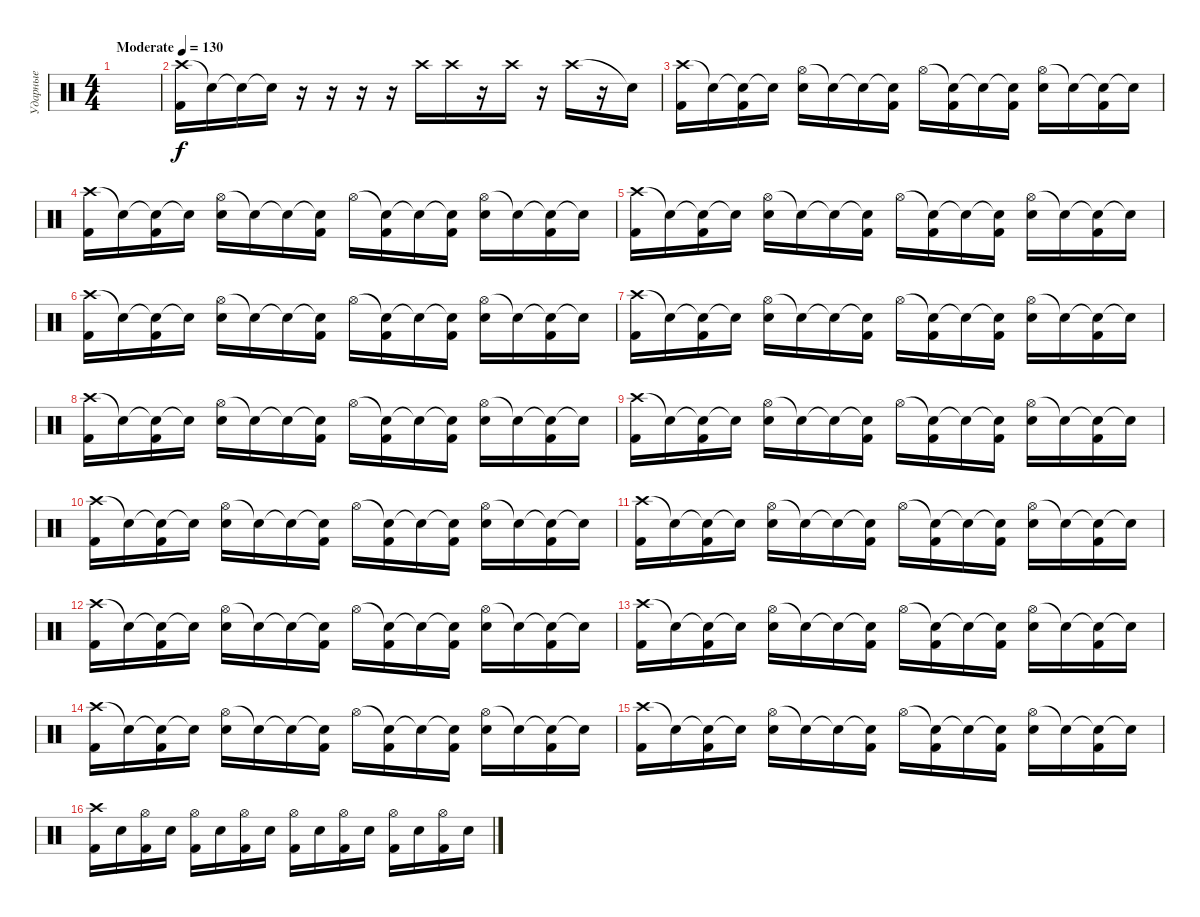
\track ("Ударные" "Ударные") {instrument percussion}
\staff {score}
\articulation defaults
\ts (4 4)
\tempo (130 "Moderate")
\clef neutral
\ks c
|
("Crash high (hit)" "Kick (hit) 2").16 "Snare (hit)"{t}.16 "Snare (hit)"{t}.16 "Snare (hit)"{t}.16 r.16 r.16 r.16 r.16 "Crash high (hit)".16 "Crash high (hit)".16 r.16 "Crash high (hit)".16 r.16 "Crash high (hit)".16 r.16 "Snare (hit)"{t}.16 |
("Crash high (hit)" "Kick (hit) 2").16 "Snare (hit)"{t}.16 ("Snare (hit)"{t} "Kick (hit) 2").16 "Snare (hit)"{t}.16 ("Hi-Hat (open)" "Snare (hit) 2").16 "Snare (hit)"{t}.16 "Snare (hit)"{t}.16 ("Snare (hit)"{t} "Kick (hit) 2").16 "Hi-Hat (open)".16 ("Snare (hit)"{t} "Kick (hit) 2").16 "Snare (hit)"{t}.16 ("Snare (hit)"{t} "Kick (hit) 2").16 ("Hi-Hat (open)" "Snare (hit) 2").16 "Snare (hit)"{t}.16 ("Snare (hit)"{t} "Kick (hit) 2").16 "Snare (hit)"{t}.16 |
("Crash high (hit)" "Kick (hit) 2").16 "Snare (hit)"{t}.16 ("Snare (hit)"{t} "Kick (hit) 2").16 "Snare (hit)"{t}.16 ("Hi-Hat (open)" "Snare (hit) 2").16 "Snare (hit)"{t}.16 "Snare (hit)"{t}.16 ("Snare (hit)"{t} "Kick (hit) 2").16 "Hi-Hat (open)".16 ("Snare (hit)"{t} "Kick (hit) 2").16 "Snare (hit)"{t}.16 ("Snare (hit)"{t} "Kick (hit) 2").16 ("Hi-Hat (open)" "Snare (hit) 2").16 "Snare (hit)"{t}.16 ("Snare (hit)"{t} "Kick (hit) 2").16 "Snare (hit)"{t}.16 |
("Crash high (hit)" "Kick (hit) 2").16 "Snare (hit)"{t}.16 ("Snare (hit)"{t} "Kick (hit) 2").16 "Snare (hit)"{t}.16 ("Hi-Hat (open)" "Snare (hit) 2").16 "Snare (hit)"{t}.16 "Snare (hit)"{t}.16 ("Snare (hit)"{t} "Kick (hit) 2").16 "Hi-Hat (open)".16 ("Snare (hit)"{t} "Kick (hit) 2").16 "Snare (hit)"{t}.16 ("Snare (hit)"{t} "Kick (hit) 2").16 ("Hi-Hat (open)" "Snare (hit) 2").16 "Snare (hit)"{t}.16 ("Snare (hit)"{t} "Kick (hit) 2").16 "Snare (hit)"{t}.16 |
("Crash high (hit)" "Kick (hit) 2").16 "Snare (hit)"{t}.16 ("Snare (hit)"{t} "Kick (hit) 2").16 "Snare (hit)"{t}.16 ("Hi-Hat (open)" "Snare (hit) 2").16 "Snare (hit)"{t}.16 "Snare (hit)"{t}.16 ("Snare (hit)"{t} "Kick (hit) 2").16 "Hi-Hat (open)".16 ("Snare (hit)"{t} "Kick (hit) 2").16 "Snare (hit)"{t}.16 ("Snare (hit)"{t} "Kick (hit) 2").16 ("Hi-Hat (open)" "Snare (hit) 2").16 "Snare (hit)"{t}.16 ("Snare (hit)"{t} "Kick (hit) 2").16 "Snare (hit)"{t}.16 |
("Crash high (hit)" "Kick (hit) 2").16 "Snare (hit)"{t}.16 ("Snare (hit)"{t} "Kick (hit) 2").16 "Snare (hit)"{t}.16 ("Hi-Hat (open)" "Snare (hit) 2").16 "Snare (hit)"{t}.16 "Snare (hit)"{t}.16 ("Snare (hit)"{t} "Kick (hit) 2").16 "Hi-Hat (open)".16 ("Snare (hit)"{t} "Kick (hit) 2").16 "Snare (hit)"{t}.16 ("Snare (hit)"{t} "Kick (hit) 2").16 ("Hi-Hat (open)" "Snare (hit) 2").16 "Snare (hit)"{t}.16 ("Snare (hit)"{t} "Kick (hit) 2").16 "Snare (hit)"{t}.16 |
("Crash high (hit)" "Kick (hit) 2").16 "Snare (hit)"{t}.16 ("Snare (hit)"{t} "Kick (hit) 2").16 "Snare (hit)"{t}.16 ("Hi-Hat (open)" "Snare (hit) 2").16 "Snare (hit)"{t}.16 "Snare (hit)"{t}.16 ("Snare (hit)"{t} "Kick (hit) 2").16 "Hi-Hat (open)".16 ("Snare (hit)"{t} "Kick (hit) 2").16 "Snare (hit)"{t}.16 ("Snare (hit)"{t} "Kick (hit) 2").16 ("Hi-Hat (open)" "Snare (hit) 2").16 "Snare (hit)"{t}.16 ("Snare (hit)"{t} "Kick (hit) 2").16 "Snare (hit)"{t}.16 |
("Crash high (hit)" "Kick (hit) 2").16 "Snare (hit)"{t}.16 ("Snare (hit)"{t} "Kick (hit) 2").16 "Snare (hit)"{t}.16 ("Hi-Hat (open)" "Snare (hit) 2").16 "Snare (hit)"{t}.16 "Snare (hit)"{t}.16 ("Snare (hit)"{t} "Kick (hit) 2").16 "Hi-Hat (open)".16 ("Snare (hit)"{t} "Kick (hit) 2").16 "Snare (hit)"{t}.16 ("Snare (hit)"{t} "Kick (hit) 2").16 ("Hi-Hat (open)" "Snare (hit) 2").16 "Snare (hit)"{t}.16 ("Snare (hit)"{t} "Kick (hit) 2").16 "Snare (hit)"{t}.16 |
("Crash high (hit)" "Kick (hit) 2").16 "Snare (hit)"{t}.16 ("Snare (hit)"{t} "Kick (hit) 2").16 "Snare (hit)"{t}.16 ("Hi-Hat (open)" "Snare (hit) 2").16 "Snare (hit)"{t}.16 "Snare (hit)"{t}.16 ("Snare (hit)"{t} "Kick (hit) 2").16 "Hi-Hat (open)".16 ("Snare (hit)"{t} "Kick (hit) 2").16 "Snare (hit)"{t}.16 ("Snare (hit)"{t} "Kick (hit) 2").16 ("Hi-Hat (open)" "Snare (hit) 2").16 "Snare (hit)"{t}.16 ("Snare (hit)"{t} "Kick (hit) 2").16 "Snare (hit)"{t}.16 |
("Crash high (hit)" "Kick (hit) 2").16 "Snare (hit)"{t}.16 ("Snare (hit)"{t} "Kick (hit) 2").16 "Snare (hit)"{t}.16 ("Hi-Hat (open)" "Snare (hit) 2").16 "Snare (hit)"{t}.16 "Snare (hit)"{t}.16 ("Snare (hit)"{t} "Kick (hit) 2").16 "Hi-Hat (open)".16 ("Snare (hit)"{t} "Kick (hit) 2").16 "Snare (hit)"{t}.16 ("Snare (hit)"{t} "Kick (hit) 2").16 ("Hi-Hat (open)" "Snare (hit) 2").16 "Snare (hit)"{t}.16 ("Snare (hit)"{t} "Kick (hit) 2").16 "Snare (hit)"{t}.16 |
("Crash high (hit)" "Kick (hit) 2").16 "Snare (hit)"{t}.16 ("Snare (hit)"{t} "Kick (hit) 2").16 "Snare (hit)"{t}.16 ("Hi-Hat (open)" "Snare (hit) 2").16 "Snare (hit)"{t}.16 "Snare (hit)"{t}.16 ("Snare (hit)"{t} "Kick (hit) 2").16 "Hi-Hat (open)".16 ("Snare (hit)"{t} "Kick (hit) 2").16 "Snare (hit)"{t}.16 ("Snare (hit)"{t} "Kick (hit) 2").16 ("Hi-Hat (open)" "Snare (hit) 2").16 "Snare (hit)"{t}.16 ("Snare (hit)"{t} "Kick (hit) 2").16 "Snare (hit)"{t}.16 |
("Crash high (hit)" "Kick (hit) 2").16 "Snare (hit)"{t}.16 ("Snare (hit)"{t} "Kick (hit) 2").16 "Snare (hit)"{t}.16 ("Hi-Hat (open)" "Snare (hit) 2").16 "Snare (hit)"{t}.16 "Snare (hit)"{t}.16 ("Snare (hit)"{t} "Kick (hit) 2").16 "Hi-Hat (open)".16 ("Snare (hit)"{t} "Kick (hit) 2").16 "Snare (hit)"{t}.16 ("Snare (hit)"{t} "Kick (hit) 2").16 ("Hi-Hat (open)" "Snare (hit) 2").16 "Snare (hit)"{t}.16 ("Snare (hit)"{t} "Kick (hit) 2").16 "Snare (hit)"{t}.16 |
("Crash high (hit)" "Kick (hit) 2").16 "Snare (hit)"{t}.16 ("Snare (hit)"{t} "Kick (hit) 2").16 "Snare (hit)"{t}.16 ("Hi-Hat (open)" "Snare (hit) 2").16 "Snare (hit)"{t}.16 "Snare (hit)"{t}.16 ("Snare (hit)"{t} "Kick (hit) 2").16 "Hi-Hat (open)".16 ("Snare (hit)"{t} "Kick (hit) 2").16 "Snare (hit)"{t}.16 ("Snare (hit)"{t} "Kick (hit) 2").16 ("Hi-Hat (open)" "Snare (hit) 2").16 "Snare (hit)"{t}.16 ("Snare (hit)"{t} "Kick (hit) 2").16 "Snare (hit)"{t}.16 |
("Crash high (hit)" "Kick (hit) 2").16 "Snare (hit)"{t}.16 ("Snare (hit)"{t} "Kick (hit) 2").16 "Snare (hit)"{t}.16 ("Hi-Hat (open)" "Snare (hit) 2").16 "Snare (hit)"{t}.16 "Snare (hit)"{t}.16 ("Snare (hit)"{t} "Kick (hit) 2").16 "Hi-Hat (open)".16 ("Snare (hit)"{t} "Kick (hit) 2").16 "Snare (hit)"{t}.16 ("Snare (hit)"{t} "Kick (hit) 2").16 ("Hi-Hat (open)" "Snare (hit) 2").16 "Snare (hit)"{t}.16 ("Snare (hit)"{t} "Kick (hit) 2").16 "Snare (hit)"{t}.16 |
("Crash high (hit)" "Kick (hit) 2").16 "Snare (hit) 2".16 ("Hi-Hat (open)" "Kick (hit) 2").16 "Snare (hit) 2".16 ("Hi-Hat (open)" "Kick (hit) 2").16 "Snare (hit) 2".16 ("Hi-Hat (open)" "Kick (hit) 2").16 "Snare (hit) 2".16 ("Hi-Hat (open)" "Kick (hit) 2").16 "Snare (hit) 2".16 ("Hi-Hat (open)" "Kick (hit) 2").16 "Snare (hit) 2".16 ("Hi-Hat (open)" "Kick (hit) 2").16 "Snare (hit) 2".16 ("Hi-Hat (open)" "Kick (hit) 2").16 "Snare (hit) 2".16
